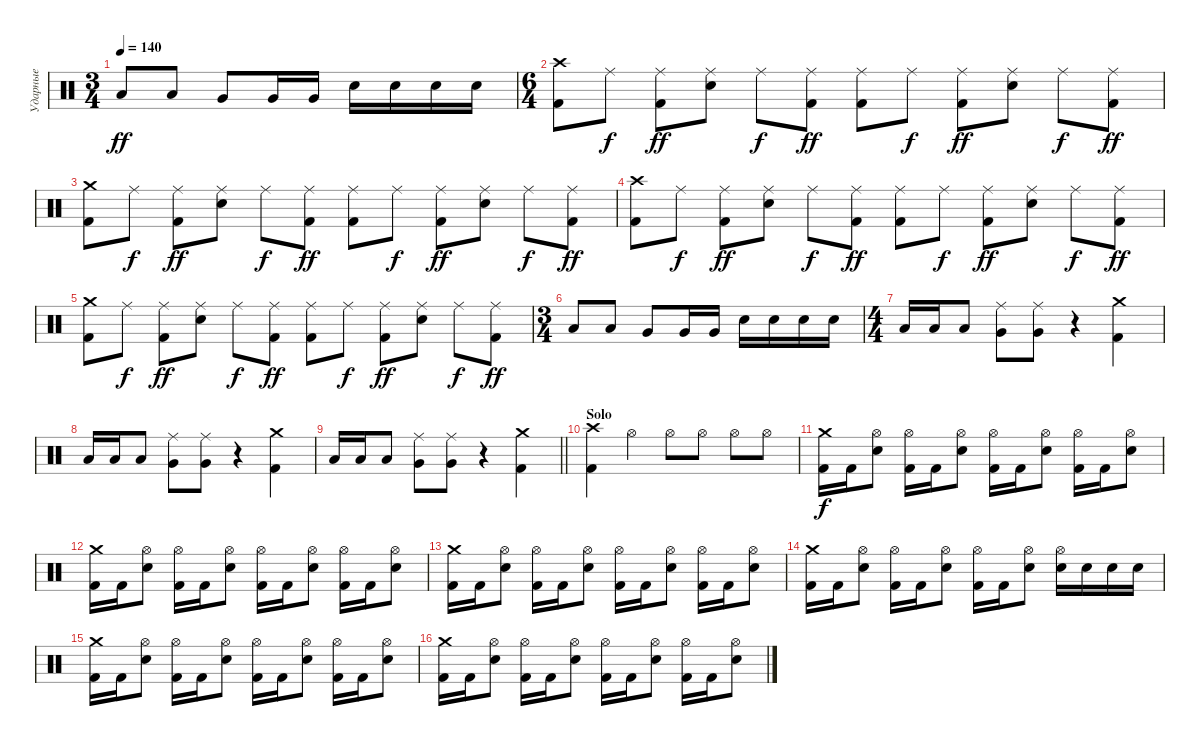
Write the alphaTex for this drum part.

\track ("Ударные" "Ударные") {instrument percussion}
\staff {score}
\articulation defaults
\ts (3 4)
\tempo 140
\clef neutral
\ks c "Low Tom (hit)".8{dy ff} "Low Tom (hit)".8 "Very Low Tom (hit)".8 "Very Low Tom (hit)".16 "Very Low Tom (hit)".16 "Snare (hit) 2".16 "Snare (hit) 2".16 "Snare (hit) 2".16 "Snare (hit) 2".16
|
\ts (6 4)
("Crash high (hit)" "Kick (hit) 2").8 "Ride (middle)".8{dy f} ("Ride (middle)" "Kick (hit) 2").8{dy ff} ("Ride (middle)" "Snare (hit) 2").8 "Ride (middle)".8{dy f} ("Ride (middle)" "Kick (hit) 2").8{dy ff} ("Ride (middle)" "Kick (hit) 2").8 "Ride (middle)".8{dy f} ("Ride (middle)" "Kick (hit) 2").8{dy ff} ("Ride (middle)" "Snare (hit) 2").8 "Ride (middle)".8{dy f} ("Ride (middle)" "Kick (hit) 2").8{dy ff} |
("Crash medium (hit)" "Kick (hit) 2").8 "Ride (middle)".8{dy f} ("Ride (middle)" "Kick (hit) 2").8{dy ff} ("Ride (middle)" "Snare (hit) 2").8 "Ride (middle)".8{dy f} ("Ride (middle)" "Kick (hit) 2").8{dy ff} ("Ride (middle)" "Kick (hit) 2").8 "Ride (middle)".8{dy f} ("Ride (middle)" "Kick (hit) 2").8{dy ff} ("Ride (middle)" "Snare (hit) 2").8 "Ride (middle)".8{dy f} ("Ride (middle)" "Kick (hit) 2").8{dy ff} |
("Crash high (hit)" "Kick (hit) 2").8 "Ride (middle)".8{dy f} ("Ride (middle)" "Kick (hit) 2").8{dy ff} ("Ride (middle)" "Snare (hit) 2").8 "Ride (middle)".8{dy f} ("Ride (middle)" "Kick (hit) 2").8{dy ff} ("Ride (middle)" "Kick (hit) 2").8 "Ride (middle)".8{dy f} ("Ride (middle)" "Kick (hit) 2").8{dy ff} ("Ride (middle)" "Snare (hit) 2").8 "Ride (middle)".8{dy f} ("Ride (middle)" "Kick (hit) 2").8{dy ff} |
("Crash medium (hit)" "Kick (hit) 2").8 "Ride (middle)".8{dy f} ("Ride (middle)" "Kick (hit) 2").8{dy ff} ("Ride (middle)" "Snare (hit) 2").8 "Ride (middle)".8{dy f} ("Ride (middle)" "Kick (hit) 2").8{dy ff} ("Ride (middle)" "Kick (hit) 2").8 "Ride (middle)".8{dy f} ("Ride (middle)" "Kick (hit) 2").8{dy ff} ("Ride (middle)" "Snare (hit) 2").8 "Ride (middle)".8{dy f} ("Ride (middle)" "Kick (hit) 2").8{dy ff} |
\ts (3 4)
"Low Tom (hit)".8 "Low Tom (hit)".8 "Very Low Tom (hit)".8 "Very Low Tom (hit)".16 "Very Low Tom (hit)".16 "Snare (hit) 2".16 "Snare (hit) 2".16 "Snare (hit) 2".16 "Snare (hit) 2".16 |
\ts (4 4)
"Low Tom (hit)".16 "Low Tom (hit)".16 "Low Tom (hit)".8 ("Very Low Tom (hit)" "Ride (middle)").8 ("Very Low Tom (hit)" "Ride (middle)").8 r.4 ("Kick (hit) 2" "Crash medium (hit)").4 |
"Low Tom (hit)".16 "Low Tom (hit)".16 "Low Tom (hit)".8 ("Very Low Tom (hit)" "Ride (middle)").8 ("Very Low Tom (hit)" "Ride (middle)").8 r.4 ("Kick (hit) 2" "Crash medium (hit)").4 |
\barLineRight lightlight "Low Tom (hit)".16 "Low Tom (hit)".16 "Low Tom (hit)".8
("Very Low Tom (hit)" "Ride (middle)").8 ("Very Low Tom (hit)" "Ride (middle)").8 r.4 ("Kick (hit) 2" "Crash medium (hit)").4 |
\section ("" "Solo")
("Kick (hit) 2" "Crash high (hit)").4 "Hi-Hat (open)".4 "Hi-Hat (open)".8 "Hi-Hat (open)".8 "Hi-Hat (open)".8 "Hi-Hat (open)".8 |
("Crash medium (hit)" "Kick (hit) 2").16{dy f} "Kick (hit) 2".16 ("Hi-Hat (open)" "Snare (hit) 2").8 ("Hi-Hat (open)" "Kick (hit) 2").16 "Kick (hit) 2".16 ("Hi-Hat (open)" "Snare (hit) 2").8 ("Hi-Hat (open)" "Kick (hit) 2").16 "Kick (hit) 2".16 ("Hi-Hat (open)" "Snare (hit) 2").8 ("Hi-Hat (open)" "Kick (hit) 2").16 "Kick (hit) 2".16 ("Hi-Hat (open)" "Snare (hit) 2").8 |
("Crash medium (hit)" "Kick (hit) 2").16 "Kick (hit) 2".16 ("Hi-Hat (open)" "Snare (hit) 2").8 ("Hi-Hat (open)" "Kick (hit) 2").16 "Kick (hit) 2".16 ("Hi-Hat (open)" "Snare (hit) 2").8 ("Hi-Hat (open)" "Kick (hit) 2").16 "Kick (hit) 2".16 ("Hi-Hat (open)" "Snare (hit) 2").8 ("Hi-Hat (open)" "Kick (hit) 2").16 "Kick (hit) 2".16 ("Hi-Hat (open)" "Snare (hit) 2").8 |
("Crash medium (hit)" "Kick (hit) 2").16 "Kick (hit) 2".16 ("Hi-Hat (open)" "Snare (hit) 2").8 ("Hi-Hat (open)" "Kick (hit) 2").16 "Kick (hit) 2".16 ("Hi-Hat (open)" "Snare (hit) 2").8 ("Hi-Hat (open)" "Kick (hit) 2").16 "Kick (hit) 2".16 ("Hi-Hat (open)" "Snare (hit) 2").8 ("Hi-Hat (open)" "Kick (hit) 2").16 "Kick (hit) 2".16 ("Hi-Hat (open)" "Snare (hit) 2").8 |
("Crash medium (hit)" "Kick (hit) 2").16 "Kick (hit) 2".16 ("Hi-Hat (open)" "Snare (hit) 2").8 ("Hi-Hat (open)" "Kick (hit) 2").16 "Kick (hit) 2".16 ("Hi-Hat (open)" "Snare (hit) 2").8 ("Hi-Hat (open)" "Kick (hit) 2").16 "Kick (hit) 2".16 ("Hi-Hat (open)" "Snare (hit) 2").8 ("Hi-Hat (open)" "Snare (hit) 2").16 "Snare (hit) 2".16 "Snare (hit) 2".16 "Snare (hit) 2".16 |
("Crash medium (hit)" "Kick (hit) 2").16 "Kick (hit) 2".16 ("Hi-Hat (open)" "Snare (hit) 2").8 ("Hi-Hat (open)" "Kick (hit) 2").16 "Kick (hit) 2".16 ("Hi-Hat (open)" "Snare (hit) 2").8 ("Hi-Hat (open)" "Kick (hit) 2").16 "Kick (hit) 2".16 ("Hi-Hat (open)" "Snare (hit) 2").8 ("Hi-Hat (open)" "Kick (hit) 2").16 "Kick (hit) 2".16 ("Hi-Hat (open)" "Snare (hit) 2").8 |
("Crash medium (hit)" "Kick (hit) 2").16 "Kick (hit) 2".16 ("Hi-Hat (open)" "Snare (hit) 2").8 ("Hi-Hat (open)" "Kick (hit) 2").16 "Kick (hit) 2".16 ("Hi-Hat (open)" "Snare (hit) 2").8 ("Hi-Hat (open)" "Kick (hit) 2").16 "Kick (hit) 2".16 ("Hi-Hat (open)" "Snare (hit) 2").8 ("Hi-Hat (open)" "Kick (hit) 2").16 "Kick (hit) 2".16 ("Hi-Hat (open)" "Snare (hit) 2").8
